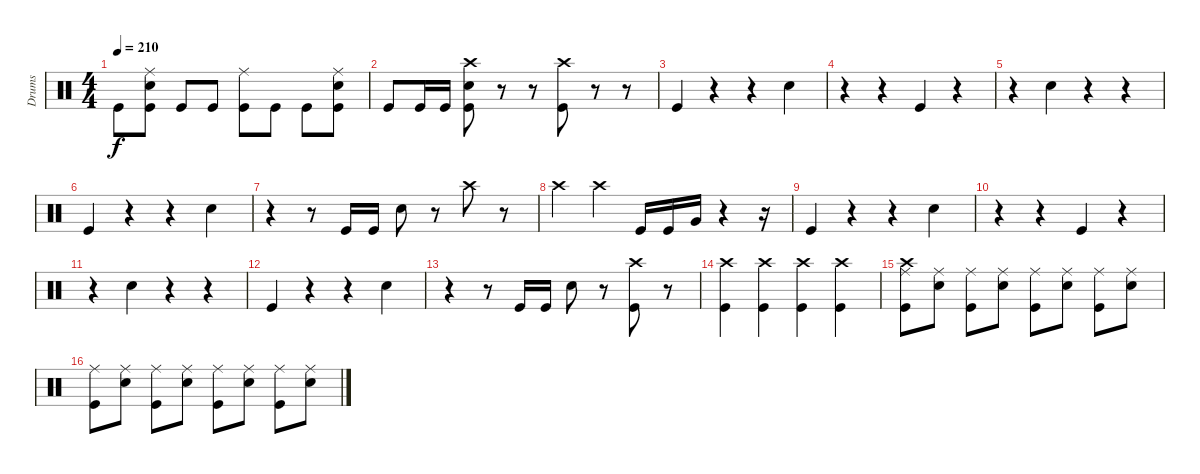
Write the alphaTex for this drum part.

\track ("Drums" "Drums") {instrument percussion}
\staff {score}
\articulation defaults
\ts (4 4)
\tempo 210
\clef neutral
\ks c "Kick (hit)".8{dy f}
("Electric Snare (hit)" "Ride (middle)" "Kick (hit)").8 "Kick (hit)".8 "Kick (hit)".8 ("Ride (middle)" "Kick (hit)").8 "Kick (hit)".8 "Kick (hit)".8 ("Electric Snare (hit)" "Ride (middle)" "Kick (hit)").8 |
"Kick (hit)".8 "Kick (hit)".16 "Kick (hit)".16 ("Electric Snare (hit)" "Crash high (hit)" "Kick (hit)").8 r.8 r.8 ("Crash high (hit)" "Kick (hit)").8 r.8 r.8 |
"Kick (hit)".4 r.4 r.4 "Electric Snare (hit)".4 |
r.4 r.4 "Kick (hit)".4 r.4 |
r.4 "Electric Snare (hit)".4 r.4 r.4 |
"Kick (hit)".4 r.4 r.4 "Electric Snare (hit)".4 |
r.4 r.8 "Kick (hit)".16 "Kick (hit)".16 "Electric Snare (hit)".8 r.8 "Crash high (hit)".8 r.8 |
"Crash high (hit)".4 "Crash high (hit)".4 "Kick (hit)".16 "Kick (hit)".16 "Very Low Tom (hit)".16 r.4 r.16 |
"Kick (hit)".4 r.4 r.4 "Electric Snare (hit)".4 |
r.4 r.4 "Kick (hit)".4 r.4 |
r.4 "Electric Snare (hit)".4 r.4 r.4 |
"Kick (hit)".4 r.4 r.4 "Electric Snare (hit)".4 |
r.4 r.8 "Kick (hit)".16 "Kick (hit)".16 "Electric Snare (hit)".8 r.8 ("Crash high (hit)" "Kick (hit)").8 r.8 |
("Crash high (hit)" "Kick (hit)").4 ("Crash high (hit)" "Kick (hit)").4 ("Crash high (hit)" "Kick (hit)").4 ("Crash high (hit)" "Kick (hit)").4 |
("Ride (middle)" "Crash high (hit)" "Kick (hit)").8 ("Electric Snare (hit)" "Ride (middle)").8 ("Ride (middle)" "Kick (hit)").8 ("Electric Snare (hit)" "Ride (middle)").8 ("Ride (middle)" "Kick (hit)").8 ("Electric Snare (hit)" "Ride (middle)").8 ("Ride (middle)" "Kick (hit)").8 ("Electric Snare (hit)" "Ride (middle)").8 |
("Ride (middle)" "Kick (hit)").8 ("Electric Snare (hit)" "Ride (middle)").8 ("Ride (middle)" "Kick (hit)").8 ("Electric Snare (hit)" "Ride (middle)").8 ("Ride (middle)" "Kick (hit)").8 ("Electric Snare (hit)" "Ride (middle)").8 ("Ride (middle)" "Kick (hit)").8 ("Electric Snare (hit)" "Ride (middle)").8
